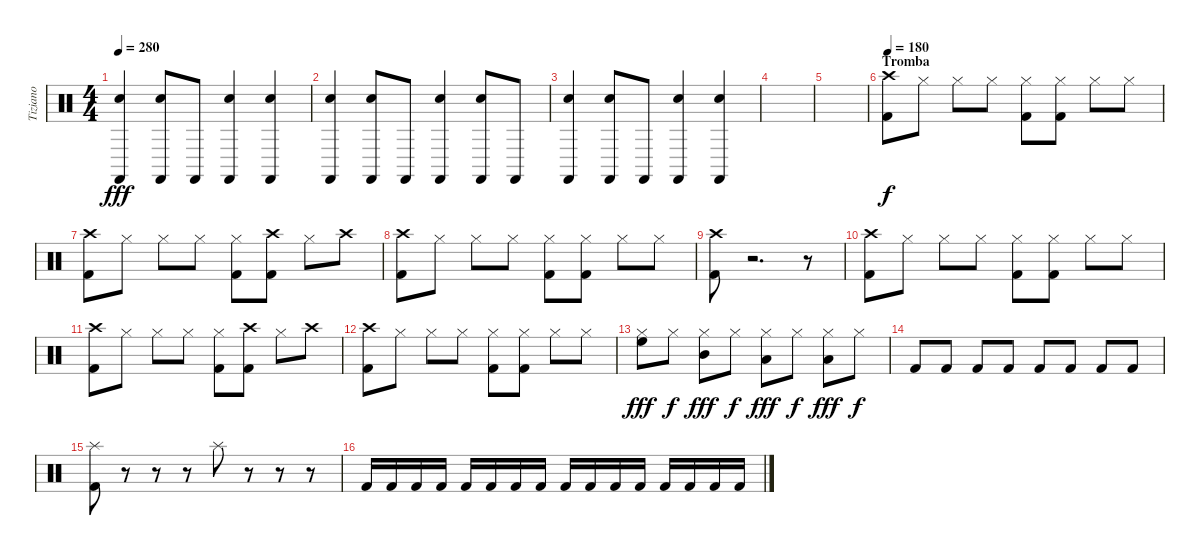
\track ("Tiziano" "Tiziano") {instrument percussion}
\staff {score}
\articulation defaults
\ts (4 4)
\tempo 280
\clef neutral
\ks c
("Hand Clap (hit)" "Castanets (hit)").4{dy fff} ("Hand Clap (hit)" "Castanets (hit)").8 "Castanets (hit)".8 ("Hand Clap (hit)" "Castanets (hit)").4 ("Hand Clap (hit)" "Castanets (hit)").4 |
("Hand Clap (hit)" "Castanets (hit)").4 ("Hand Clap (hit)" "Castanets (hit)").8 "Castanets (hit)".8 ("Hand Clap (hit)" "Castanets (hit)").4 ("Hand Clap (hit)" "Castanets (hit)").8 "Castanets (hit)".8 |
("Hand Clap (hit)" "Castanets (hit)").4 ("Hand Clap (hit)" "Castanets (hit)").8 "Castanets (hit)".8 ("Hand Clap (hit)" "Castanets (hit)").4 ("Hand Clap (hit)" "Castanets (hit)").4 |
|
|
\section ("" "Tromba")
\tempo 180
("Crash high (hit)" "Kick (hit) 2").8{dy f} "Hi-Hat (closed)".8 "Hi-Hat (closed)".8 "Hi-Hat (closed)".8 ("Hi-Hat (closed)" "Kick (hit) 2").8 ("Hi-Hat (closed)" "Kick (hit) 2").8 "Hi-Hat (closed)".8 "Hi-Hat (closed)".8 |
("Crash high (hit)" "Kick (hit) 2").8 "Hi-Hat (closed)".8 "Hi-Hat (closed)".8 "Hi-Hat (closed)".8 ("Hi-Hat (closed)" "Kick (hit) 2").8 ("Crash high (hit)" "Kick (hit) 2").8 "Hi-Hat (closed)".8 "Crash high (hit)".8 |
("Crash high (hit)" "Kick (hit) 2").8 "Hi-Hat (closed)".8 "Hi-Hat (closed)".8 "Hi-Hat (closed)".8 ("Hi-Hat (closed)" "Kick (hit) 2").8 ("Hi-Hat (closed)" "Kick (hit) 2").8 "Hi-Hat (closed)".8 "Hi-Hat (closed)".8 |
("Crash high (hit)" "Kick (hit) 2").8 r.2{d} r.8 |
("Crash high (hit)" "Kick (hit) 2").8 "Hi-Hat (closed)".8 "Hi-Hat (closed)".8 "Hi-Hat (closed)".8 ("Hi-Hat (closed)" "Kick (hit) 2").8 ("Hi-Hat (closed)" "Kick (hit) 2").8 "Hi-Hat (closed)".8 "Hi-Hat (closed)".8 |
("Crash high (hit)" "Kick (hit) 2").8 "Hi-Hat (closed)".8 "Hi-Hat (closed)".8 "Hi-Hat (closed)".8 ("Hi-Hat (closed)" "Kick (hit) 2").8 ("Crash high (hit)" "Kick (hit) 2").8 "Hi-Hat (closed)".8 "Crash high (hit)".8 |
("Crash high (hit)" "Kick (hit) 2").8 "Hi-Hat (closed)".8 "Hi-Hat (closed)".8 "Hi-Hat (closed)".8 ("Hi-Hat (closed)" "Kick (hit) 2").8 ("Hi-Hat (closed)" "Kick (hit) 2").8 "Hi-Hat (closed)".8 "Hi-Hat (closed)".8 |
("Hi-Hat (closed)" "High Floor Tom (hit)").8{dy fff} "Hi-Hat (closed)".8{dy f} ("Hi-Hat (closed)" "Mid Tom (hit)").8{dy fff} "Hi-Hat (closed)".8{dy f} ("Hi-Hat (closed)" "Low Tom (hit)").8{dy fff} "Hi-Hat (closed)".8{dy f} ("Hi-Hat (closed)" "Low Floor Tom (hit)").8{dy fff} "Hi-Hat (closed)".8{dy f} |
"Kick (hit) 2".8 "Kick (hit) 2".8 "Kick (hit) 2".8 "Kick (hit) 2".8 "Kick (hit) 2".8 "Kick (hit) 2".8 "Kick (hit) 2".8 "Kick (hit) 2".8 |
("Splash (hit)" "Kick (hit) 2").8 r.8 r.8 r.8 "Splash (hit)".8 r.8 r.8 r.8 |
"Kick (hit) 2".16 "Kick (hit) 2".16 "Kick (hit) 2".16 "Kick (hit) 2".16 "Kick (hit) 2".16 "Kick (hit) 2".16 "Kick (hit) 2".16 "Kick (hit) 2".16 "Kick (hit) 2".16 "Kick (hit) 2".16 "Kick (hit) 2".16 "Kick (hit) 2".16 "Kick (hit) 2".16 "Kick (hit) 2".16 "Kick (hit) 2".16 "Kick (hit) 2".16
